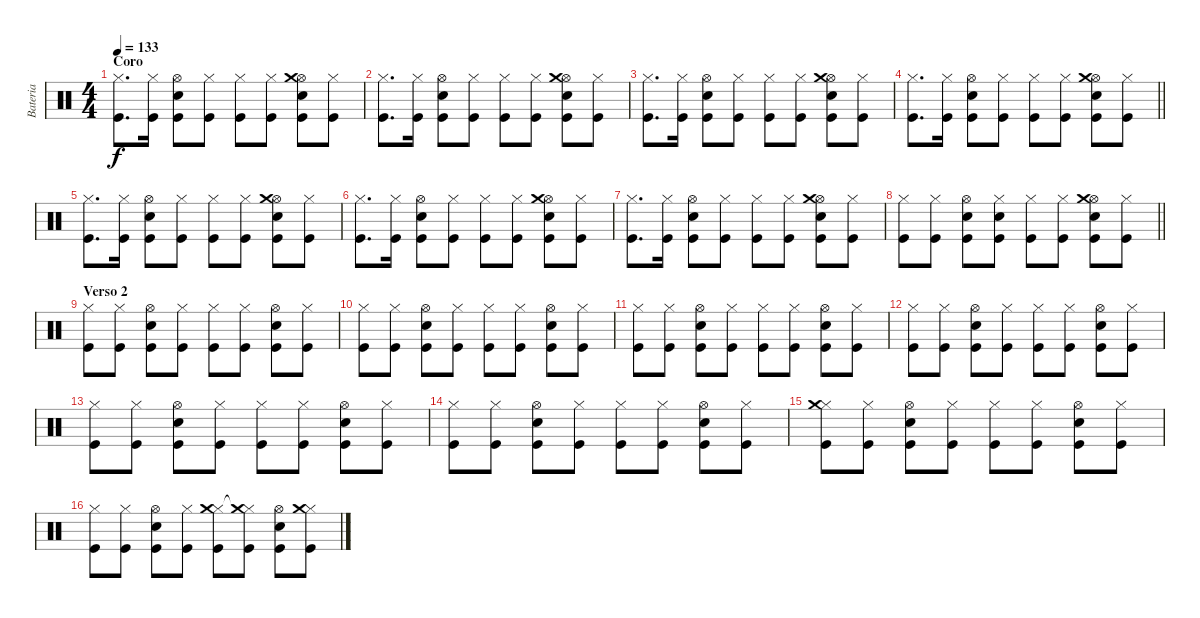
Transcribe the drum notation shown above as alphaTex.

\track ("Bateria" "Bateria") {instrument percussion}
\staff
\articulation defaults
\ts (4 4)
\section ("" "Coro")
\tempo 133
\clef neutral
\ks c
("Hi-Hat (closed)" "Kick (hit)").8{d dy f} ("Hi-Hat (closed)" "Kick (hit)").16 ("Hi-Hat (open)" "Kick (hit)" "Snare (hit) 2").8 ("Hi-Hat (closed)" "Kick (hit)").8 ("Hi-Hat (closed)" "Kick (hit)").8 ("Hi-Hat (closed)" "Kick (hit)").8 ("Hi-Hat (open)" "Kick (hit)" "Snare (hit) 2" "Crash medium (hit)").8 ("Hi-Hat (closed)" "Kick (hit)").8 |
("Hi-Hat (closed)" "Kick (hit)").8{d} ("Hi-Hat (closed)" "Kick (hit)").16 ("Hi-Hat (open)" "Kick (hit)" "Snare (hit) 2").8 ("Hi-Hat (closed)" "Kick (hit)").8 ("Hi-Hat (closed)" "Kick (hit)").8 ("Hi-Hat (closed)" "Kick (hit)").8 ("Hi-Hat (open)" "Kick (hit)" "Snare (hit) 2" "Crash medium (hit)").8 ("Hi-Hat (closed)" "Kick (hit)").8 |
("Hi-Hat (closed)" "Kick (hit)").8{d} ("Hi-Hat (closed)" "Kick (hit)").16 ("Hi-Hat (open)" "Kick (hit)" "Snare (hit) 2").8 ("Hi-Hat (closed)" "Kick (hit)").8 ("Hi-Hat (closed)" "Kick (hit)").8 ("Hi-Hat (closed)" "Kick (hit)").8 ("Hi-Hat (open)" "Kick (hit)" "Snare (hit) 2" "Crash medium (hit)").8 ("Hi-Hat (closed)" "Kick (hit)").8 |
\barLineRight lightlight
("Hi-Hat (closed)" "Kick (hit)").8{d} ("Hi-Hat (closed)" "Kick (hit)").16 ("Hi-Hat (open)" "Kick (hit)" "Snare (hit) 2").8 ("Hi-Hat (closed)" "Kick (hit)").8 ("Hi-Hat (closed)" "Kick (hit)").8 ("Hi-Hat (closed)" "Kick (hit)").8 ("Hi-Hat (open)" "Kick (hit)" "Snare (hit) 2" "Crash medium (hit)").8 ("Hi-Hat (closed)" "Kick (hit)").8 |
("Hi-Hat (closed)" "Kick (hit)").8{d} ("Hi-Hat (closed)" "Kick (hit)").16 ("Hi-Hat (open)" "Kick (hit)" "Snare (hit) 2").8 ("Hi-Hat (closed)" "Kick (hit)").8 ("Hi-Hat (closed)" "Kick (hit)").8 ("Hi-Hat (closed)" "Kick (hit)").8 ("Hi-Hat (open)" "Kick (hit)" "Snare (hit) 2" "Crash medium (hit)").8 ("Hi-Hat (closed)" "Kick (hit)").8 |
("Hi-Hat (closed)" "Kick (hit)").8{d} ("Hi-Hat (closed)" "Kick (hit)").16 ("Hi-Hat (open)" "Kick (hit)" "Snare (hit) 2").8 ("Hi-Hat (closed)" "Kick (hit)").8 ("Hi-Hat (closed)" "Kick (hit)").8 ("Hi-Hat (closed)" "Kick (hit)").8 ("Hi-Hat (open)" "Kick (hit)" "Snare (hit) 2" "Crash medium (hit)").8 ("Hi-Hat (closed)" "Kick (hit)").8 |
("Hi-Hat (closed)" "Kick (hit)").8{d} ("Hi-Hat (closed)" "Kick (hit)").16 ("Hi-Hat (open)" "Kick (hit)" "Snare (hit) 2").8 ("Hi-Hat (closed)" "Kick (hit)").8 ("Hi-Hat (closed)" "Kick (hit)").8 ("Hi-Hat (closed)" "Kick (hit)").8 ("Hi-Hat (open)" "Kick (hit)" "Snare (hit) 2" "Crash medium (hit)").8 ("Hi-Hat (closed)" "Kick (hit)").8 |
\barLineRight lightlight
("Hi-Hat (closed)" "Kick (hit)").8 ("Hi-Hat (closed)" "Kick (hit)").8 ("Hi-Hat (open)" "Kick (hit)" "Snare (hit) 2").8 ("Hi-Hat (closed)" "Kick (hit)" "Snare (hit) 2").8 ("Hi-Hat (closed)" "Kick (hit)").8 ("Hi-Hat (closed)" "Kick (hit)").8 ("Hi-Hat (open)" "Kick (hit)" "Snare (hit) 2" "Crash medium (hit)").8 ("Hi-Hat (closed)" "Kick (hit)").8 |
\section ("" "Verso 2")
("Hi-Hat (closed)" "Kick (hit)").8 ("Hi-Hat (closed)" "Kick (hit)").8 ("Hi-Hat (open)" "Kick (hit)" "Snare (hit) 2").8 ("Hi-Hat (closed)" "Kick (hit)").8 ("Hi-Hat (closed)" "Kick (hit)").8 ("Hi-Hat (closed)" "Kick (hit)").8 ("Hi-Hat (open)" "Kick (hit)" "Snare (hit) 2").8 ("Hi-Hat (closed)" "Kick (hit)").8 |
("Hi-Hat (closed)" "Kick (hit)").8 ("Hi-Hat (closed)" "Kick (hit)").8 ("Hi-Hat (open)" "Kick (hit)" "Snare (hit) 2").8 ("Hi-Hat (closed)" "Kick (hit)").8 ("Hi-Hat (closed)" "Kick (hit)").8 ("Hi-Hat (closed)" "Kick (hit)").8 ("Hi-Hat (open)" "Kick (hit)" "Snare (hit) 2").8 ("Hi-Hat (closed)" "Kick (hit)").8 |
("Hi-Hat (closed)" "Kick (hit)").8 ("Hi-Hat (closed)" "Kick (hit)").8 ("Hi-Hat (open)" "Kick (hit)" "Snare (hit) 2").8 ("Hi-Hat (closed)" "Kick (hit)").8 ("Hi-Hat (closed)" "Kick (hit)").8 ("Hi-Hat (closed)" "Kick (hit)").8 ("Hi-Hat (open)" "Kick (hit)" "Snare (hit) 2").8 ("Hi-Hat (closed)" "Kick (hit)").8 |
("Hi-Hat (closed)" "Kick (hit)").8 ("Hi-Hat (closed)" "Kick (hit)").8 ("Hi-Hat (open)" "Kick (hit)" "Snare (hit) 2").8 ("Hi-Hat (closed)" "Kick (hit)").8 ("Hi-Hat (closed)" "Kick (hit)").8 ("Hi-Hat (closed)" "Kick (hit)").8 ("Hi-Hat (open)" "Kick (hit)" "Snare (hit) 2").8 ("Hi-Hat (closed)" "Kick (hit)").8 |
("Hi-Hat (closed)" "Kick (hit)").8 ("Hi-Hat (closed)" "Kick (hit)").8 ("Hi-Hat (open)" "Kick (hit)" "Snare (hit) 2").8 ("Hi-Hat (closed)" "Kick (hit)").8 ("Hi-Hat (closed)" "Kick (hit)").8 ("Hi-Hat (closed)" "Kick (hit)").8 ("Hi-Hat (open)" "Kick (hit)" "Snare (hit) 2").8 ("Hi-Hat (closed)" "Kick (hit)").8 |
("Hi-Hat (closed)" "Kick (hit)").8 ("Hi-Hat (closed)" "Kick (hit)").8 ("Hi-Hat (open)" "Kick (hit)" "Snare (hit) 2").8 ("Hi-Hat (closed)" "Kick (hit)").8 ("Hi-Hat (closed)" "Kick (hit)").8 ("Hi-Hat (closed)" "Kick (hit)").8 ("Hi-Hat (open)" "Kick (hit)" "Snare (hit) 2").8 ("Hi-Hat (closed)" "Kick (hit)").8 |
("Hi-Hat (closed)" "Kick (hit)" "Crash medium (hit)").8 ("Hi-Hat (closed)" "Kick (hit)").8 ("Hi-Hat (open)" "Kick (hit)" "Snare (hit) 2").8 ("Hi-Hat (closed)" "Kick (hit)").8 ("Hi-Hat (closed)" "Kick (hit)").8 ("Hi-Hat (closed)" "Kick (hit)").8 ("Hi-Hat (open)" "Kick (hit)" "Snare (hit) 2").8 ("Hi-Hat (closed)" "Kick (hit)").8 |
("Hi-Hat (closed)" "Kick (hit)").8 ("Hi-Hat (closed)" "Kick (hit)").8 ("Hi-Hat (open)" "Kick (hit)" "Snare (hit) 2").8 ("Hi-Hat (closed)" "Kick (hit)").8 ("Hi-Hat (closed)" "Kick (hit)" "Crash medium (hit)").8 ("Hi-Hat (closed)" "Kick (hit)" "Crash medium (hit)"{t}).8 ("Hi-Hat (open)" "Kick (hit)" "Snare (hit) 2").8 ("Hi-Hat (closed)" "Kick (hit)" "Crash medium (hit)").8
